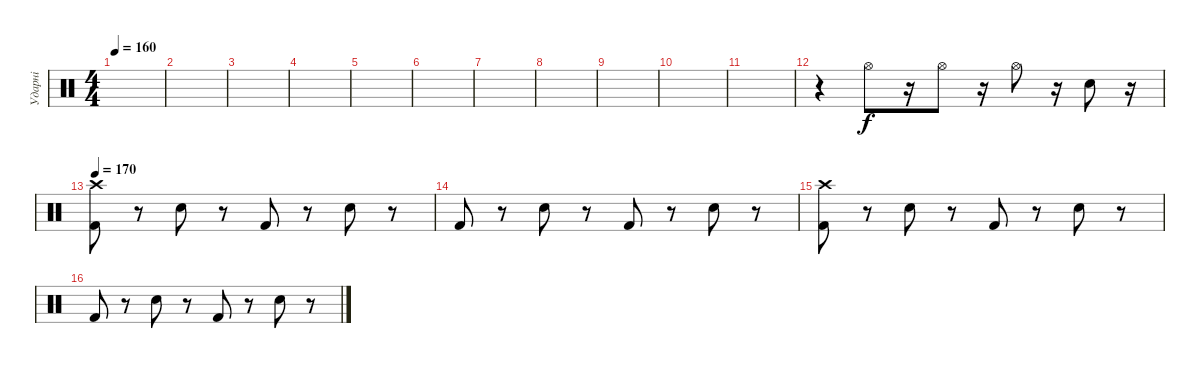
\track ("Ударні" "Ударні") {instrument percussion}
\staff {score}
\articulation defaults
\ts (4 4)
\tempo 160
\tempo 115
\tempo 160
\clef neutral
\ks c
|
|
|
|
|
|
|
|
|
|
|
r.4 "Hi-Hat (open)".8 r.16 "Hi-Hat (open)".8 r.16 "Hi-Hat (open)".8 r.16 "Snare (hit) 2".8 r.16 |
\tempo 170
("Kick (hit) 2" "Crash high (hit)").8 r.8 "Electric Snare (hit)".8 r.8 "Kick (hit) 2".8 r.8 "Electric Snare (hit)".8 r.8 |
"Kick (hit) 2".8 r.8 "Electric Snare (hit)".8 r.8 "Kick (hit) 2".8 r.8 "Electric Snare (hit)".8 r.8 |
("Kick (hit) 2" "Crash high (hit)").8 r.8 "Electric Snare (hit)".8 r.8 "Kick (hit) 2".8 r.8 "Electric Snare (hit)".8 r.8 |
"Kick (hit) 2".8 r.8 "Electric Snare (hit)".8 r.8 "Kick (hit) 2".8 r.8 "Electric Snare (hit)".8 r.8
